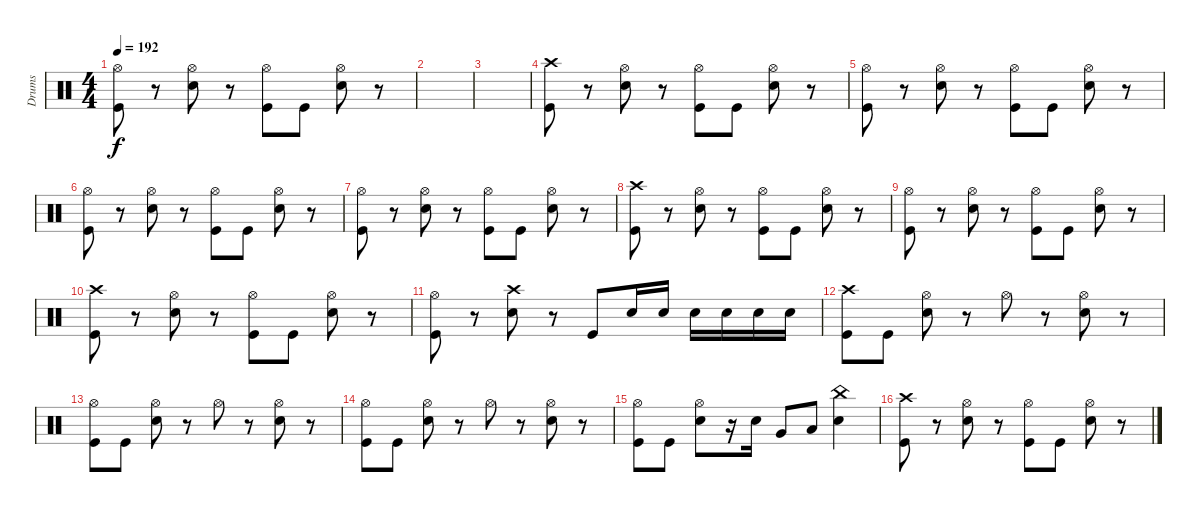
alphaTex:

\track ("Drums" "Drums") {instrument percussion}
\staff {score}
\articulation defaults
\ts (4 4)
\tempo 192
\clef neutral
\ks c
("Kick (hit)" "Hi-Hat (open)").8{dy f} r.8 ("Electric Snare (hit)" "Hi-Hat (open)").8 r.8 ("Kick (hit)" "Hi-Hat (open)").8 "Kick (hit)".8 ("Electric Snare (hit)" "Hi-Hat (open)").8 r.8 |
|
|
("Kick (hit)" "Crash high (hit)").8 r.8 ("Electric Snare (hit)" "Hi-Hat (open)").8 r.8 ("Kick (hit)" "Hi-Hat (open)").8 "Kick (hit)".8 ("Electric Snare (hit)" "Hi-Hat (open)").8 r.8 |
("Kick (hit)" "Hi-Hat (open)").8 r.8 ("Electric Snare (hit)" "Hi-Hat (open)").8 r.8 ("Kick (hit)" "Hi-Hat (open)").8 "Kick (hit)".8 ("Electric Snare (hit)" "Hi-Hat (open)").8 r.8 |
("Kick (hit)" "Hi-Hat (open)").8 r.8 ("Electric Snare (hit)" "Hi-Hat (open)").8 r.8 ("Kick (hit)" "Hi-Hat (open)").8 "Kick (hit)".8 ("Electric Snare (hit)" "Hi-Hat (open)").8 r.8 |
("Kick (hit)" "Hi-Hat (open)").8 r.8 ("Electric Snare (hit)" "Hi-Hat (open)").8 r.8 ("Kick (hit)" "Hi-Hat (open)").8 "Kick (hit)".8 ("Electric Snare (hit)" "Hi-Hat (open)").8 r.8 |
("Kick (hit)" "Crash high (hit)").8 r.8 ("Electric Snare (hit)" "Hi-Hat (open)").8 r.8 ("Kick (hit)" "Hi-Hat (open)").8 "Kick (hit)".8 ("Electric Snare (hit)" "Hi-Hat (open)").8 r.8 |
("Kick (hit)" "Hi-Hat (open)").8 r.8 ("Electric Snare (hit)" "Hi-Hat (open)").8 r.8 ("Kick (hit)" "Hi-Hat (open)").8 "Kick (hit)".8 ("Electric Snare (hit)" "Hi-Hat (open)").8 r.8 |
("Kick (hit)" "Crash high (hit)").8 r.8 ("Electric Snare (hit)" "Hi-Hat (open)").8 r.8 ("Kick (hit)" "Hi-Hat (open)").8 "Kick (hit)".8 ("Electric Snare (hit)" "Hi-Hat (open)").8 r.8 |
("Kick (hit)" "Hi-Hat (open)").8 r.8 ("Electric Snare (hit)" "Crash high (hit)").8 r.8 "Kick (hit)".8 "Electric Snare (hit)".16 "Electric Snare (hit)".16 "Electric Snare (hit)".16 "Electric Snare (hit)".16 "Electric Snare (hit)".16 "Electric Snare (hit)".16 |
("Kick (hit)" "Crash high (hit)").8 "Kick (hit)".8 ("Electric Snare (hit)" "Hi-Hat (open)").8 r.8 "Hi-Hat (open)".8 r.8 ("Electric Snare (hit)" "Hi-Hat (open)").8 r.8 |
("Kick (hit)" "Hi-Hat (open)").8 "Kick (hit)".8 ("Electric Snare (hit)" "Hi-Hat (open)").8 r.8 "Hi-Hat (open)".8 r.8 ("Electric Snare (hit)" "Hi-Hat (open)").8 r.8 |
("Kick (hit)" "Hi-Hat (open)").8 "Kick (hit)".8 ("Electric Snare (hit)" "Hi-Hat (open)").8 r.8 "Hi-Hat (open)".8 r.8 ("Electric Snare (hit)" "Hi-Hat (open)").8 r.8 |
("Kick (hit)" "Hi-Hat (open)").8 "Kick (hit)".8 ("Electric Snare (hit)" "Hi-Hat (open)").8 r.16 "Electric Snare (hit)".16 "Very Low Tom (hit)".8 "Low Floor Tom (hit)".8 ("Electric Snare (hit)" "China (hit)").4 |
("Kick (hit)" "Crash high (hit)").8 r.8 ("Electric Snare (hit)" "Hi-Hat (open)").8 r.8 ("Kick (hit)" "Hi-Hat (open)").8 "Kick (hit)".8 ("Electric Snare (hit)" "Hi-Hat (open)").8 r.8
